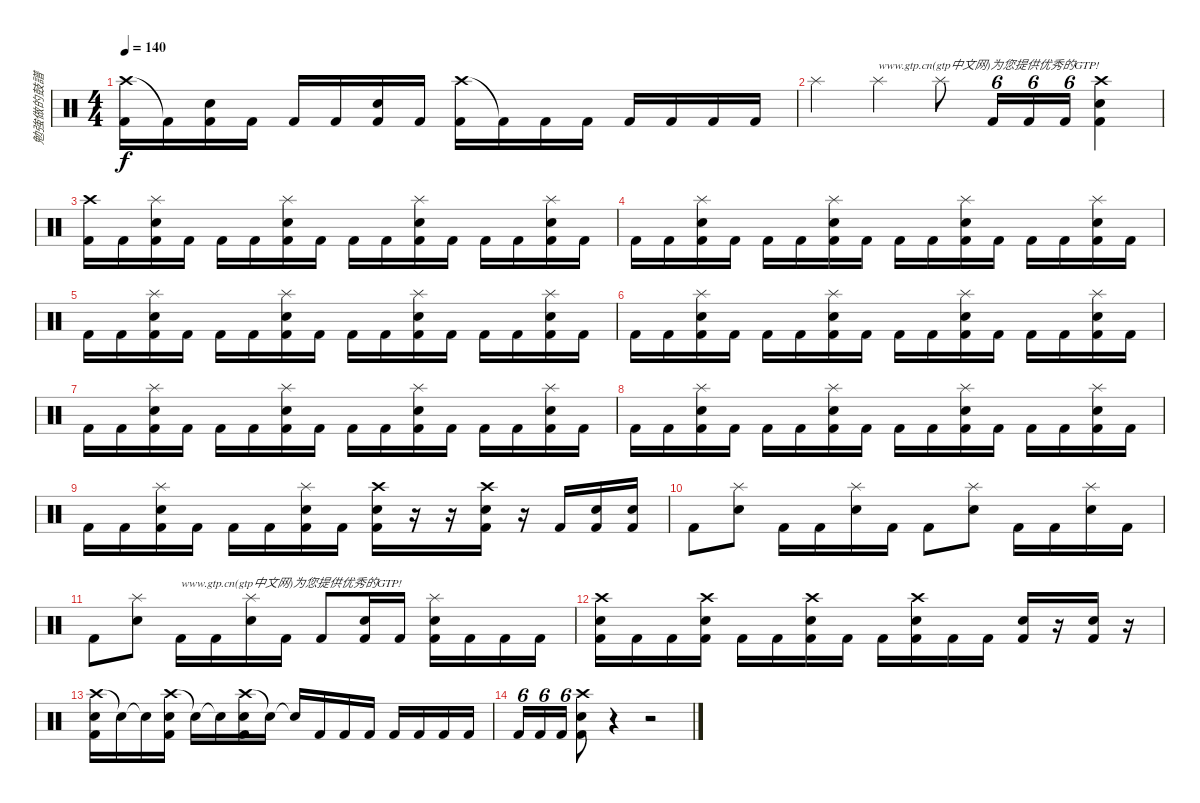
\track ("勉強做的鼓譜" "勉強做的鼓譜") {instrument percussion}
\staff {score}
\articulation defaults
\ts (4 4)
\tempo 140
\clef neutral
\ks c
("Crash high (hit)" "Kick (hit) 2").16{dy f} "Kick (hit) 2"{t}.16 ("Electric Snare (hit)" "Kick (hit) 2").16 "Kick (hit) 2".16 "Kick (hit) 2".16 "Kick (hit) 2".16 ("Electric Snare (hit)" "Kick (hit) 2").16 "Kick (hit) 2".16 ("Crash high (hit)" "Kick (hit) 2").16 "Kick (hit) 2"{t}.16 "Kick (hit) 2".16 "Kick (hit) 2".16 "Kick (hit) 2".16 "Kick (hit) 2".16 "Kick (hit) 2".16 "Kick (hit) 2".16 |
"Splash (hit)".4 "Splash (hit)".4{txt "www.gtp.cn(gtp中文网)为您提供优秀的GTP!"} "Splash (hit)".8 "Kick (hit) 2".16{tu (6 4)} "Kick (hit) 2".16{tu (6 4)} "Kick (hit) 2".16{tu (6 4)} ("Electric Snare (hit)" "Crash high (hit)" "Kick (hit) 2").4 |
("Crash high (hit)" "Kick (hit) 2").16 "Kick (hit) 2".16 ("Splash (hit)" "Electric Snare (hit)" "Kick (hit) 2").16 "Kick (hit) 2".16 "Kick (hit) 2".16 "Kick (hit) 2".16 ("Splash (hit)" "Electric Snare (hit)" "Kick (hit) 2").16 "Kick (hit) 2".16 "Kick (hit) 2".16 "Kick (hit) 2".16 ("Splash (hit)" "Electric Snare (hit)" "Kick (hit) 2").16 "Kick (hit) 2".16 "Kick (hit) 2".16 "Kick (hit) 2".16 ("Splash (hit)" "Electric Snare (hit)" "Kick (hit) 2").16 "Kick (hit) 2".16 |
"Kick (hit) 2".16 "Kick (hit) 2".16 ("Splash (hit)" "Electric Snare (hit)" "Kick (hit) 2").16 "Kick (hit) 2".16 "Kick (hit) 2".16 "Kick (hit) 2".16 ("Splash (hit)" "Electric Snare (hit)" "Kick (hit) 2").16 "Kick (hit) 2".16 "Kick (hit) 2".16 "Kick (hit) 2".16 ("Splash (hit)" "Electric Snare (hit)" "Kick (hit) 2").16 "Kick (hit) 2".16 "Kick (hit) 2".16 "Kick (hit) 2".16 ("Splash (hit)" "Electric Snare (hit)" "Kick (hit) 2").16 "Kick (hit) 2".16 |
"Kick (hit) 2".16 "Kick (hit) 2".16 ("Splash (hit)" "Electric Snare (hit)" "Kick (hit) 2").16 "Kick (hit) 2".16 "Kick (hit) 2".16 "Kick (hit) 2".16 ("Splash (hit)" "Electric Snare (hit)" "Kick (hit) 2").16 "Kick (hit) 2".16 "Kick (hit) 2".16 "Kick (hit) 2".16 ("Splash (hit)" "Electric Snare (hit)" "Kick (hit) 2").16 "Kick (hit) 2".16 "Kick (hit) 2".16 "Kick (hit) 2".16 ("Splash (hit)" "Electric Snare (hit)" "Kick (hit) 2").16 "Kick (hit) 2".16 |
"Kick (hit) 2".16 "Kick (hit) 2".16 ("Splash (hit)" "Electric Snare (hit)" "Kick (hit) 2").16 "Kick (hit) 2".16 "Kick (hit) 2".16 "Kick (hit) 2".16 ("Splash (hit)" "Electric Snare (hit)" "Kick (hit) 2").16 "Kick (hit) 2".16 "Kick (hit) 2".16 "Kick (hit) 2".16 ("Splash (hit)" "Electric Snare (hit)" "Kick (hit) 2").16 "Kick (hit) 2".16 "Kick (hit) 2".16 "Kick (hit) 2".16 ("Splash (hit)" "Electric Snare (hit)" "Kick (hit) 2").16 "Kick (hit) 2".16 |
"Kick (hit) 2".16 "Kick (hit) 2".16 ("Splash (hit)" "Electric Snare (hit)" "Kick (hit) 2").16 "Kick (hit) 2".16 "Kick (hit) 2".16 "Kick (hit) 2".16 ("Splash (hit)" "Electric Snare (hit)" "Kick (hit) 2").16 "Kick (hit) 2".16 "Kick (hit) 2".16 "Kick (hit) 2".16 ("Splash (hit)" "Electric Snare (hit)" "Kick (hit) 2").16 "Kick (hit) 2".16 "Kick (hit) 2".16 "Kick (hit) 2".16 ("Splash (hit)" "Electric Snare (hit)" "Kick (hit) 2").16 "Kick (hit) 2".16 |
"Kick (hit) 2".16 "Kick (hit) 2".16 ("Splash (hit)" "Electric Snare (hit)" "Kick (hit) 2").16 "Kick (hit) 2".16 "Kick (hit) 2".16 "Kick (hit) 2".16 ("Splash (hit)" "Electric Snare (hit)" "Kick (hit) 2").16 "Kick (hit) 2".16 "Kick (hit) 2".16 "Kick (hit) 2".16 ("Splash (hit)" "Electric Snare (hit)" "Kick (hit) 2").16 "Kick (hit) 2".16 "Kick (hit) 2".16 "Kick (hit) 2".16 ("Splash (hit)" "Electric Snare (hit)" "Kick (hit) 2").16 "Kick (hit) 2".16 |
"Kick (hit) 2".16 "Kick (hit) 2".16 ("Splash (hit)" "Electric Snare (hit)" "Kick (hit) 2").16 "Kick (hit) 2".16 "Kick (hit) 2".16 "Kick (hit) 2".16 ("Splash (hit)" "Electric Snare (hit)" "Kick (hit) 2").16 "Kick (hit) 2".16 ("Crash high (hit)" "Electric Snare (hit)" "Kick (hit) 2").16 r.16 r.16 ("Crash high (hit)" "Electric Snare (hit)" "Kick (hit) 2").16 r.16 "Kick (hit) 2".16 ("Electric Snare (hit)" "Kick (hit) 2").16 ("Electric Snare (hit)" "Kick (hit) 2").16 |
"Kick (hit) 2".8 ("Splash (hit)" "Electric Snare (hit)").8 "Kick (hit) 2".16 "Kick (hit) 2".16 ("Splash (hit)" "Electric Snare (hit)").16 "Kick (hit) 2".16 "Kick (hit) 2".8 ("Splash (hit)" "Electric Snare (hit)").8 "Kick (hit) 2".16 "Kick (hit) 2".16 ("Splash (hit)" "Electric Snare (hit)").16 "Kick (hit) 2".16 |
"Kick (hit) 2".8 ("Splash (hit)" "Electric Snare (hit)").8 "Kick (hit) 2".16{txt "www.gtp.cn(gtp中文网)为您提供优秀的GTP!"} "Kick (hit) 2".16 ("Splash (hit)" "Electric Snare (hit)").16 "Kick (hit) 2".16 "Kick (hit) 2".8 ("Electric Snare (hit)" "Kick (hit) 2").16 "Kick (hit) 2".16 ("Splash (hit)" "Electric Snare (hit)" "Kick (hit) 2").16 "Kick (hit) 2".16 "Kick (hit) 2".16 "Kick (hit) 2".16 |
("Crash high (hit)" "Electric Snare (hit)" "Kick (hit) 2").16 "Kick (hit) 2".16 "Kick (hit) 2".16 ("Crash high (hit)" "Electric Snare (hit)" "Kick (hit) 2").16 "Kick (hit) 2".16 "Kick (hit) 2".16 ("Crash high (hit)" "Electric Snare (hit)" "Kick (hit) 2").16 "Kick (hit) 2".16 "Kick (hit) 2".16 ("Crash high (hit)" "Electric Snare (hit)" "Kick (hit) 2").16 "Kick (hit) 2".16 "Kick (hit) 2".16 ("Electric Snare (hit)" "Kick (hit) 2").16 r.16 ("Electric Snare (hit)" "Kick (hit) 2").16 r.16 |
("Crash high (hit)" "Electric Snare (hit)" "Kick (hit) 2").16 "Snare (hit)"{t}.16 "Snare (hit)"{t}.16 ("Crash high (hit)" "Electric Snare (hit)" "Kick (hit) 2").16 "Snare (hit)"{t}.16 "Snare (hit)"{t}.16 ("Crash high (hit)" "Electric Snare (hit)" "Kick (hit) 2").16 "Snare (hit)"{t}.16 "Snare (hit)"{t}.16 "Kick (hit) 2".16 "Kick (hit) 2".16 "Kick (hit) 2".16 "Kick (hit) 2".16 "Kick (hit) 2".16 "Kick (hit) 2".16 "Kick (hit) 2".16 |
"Kick (hit) 2".16{tu (6 4)} "Kick (hit) 2".16{tu (6 4)} "Kick (hit) 2".16{tu (6 4)} ("Crash high (hit)" "Electric Snare (hit)" "Kick (hit) 2").8 r.4 r.2
